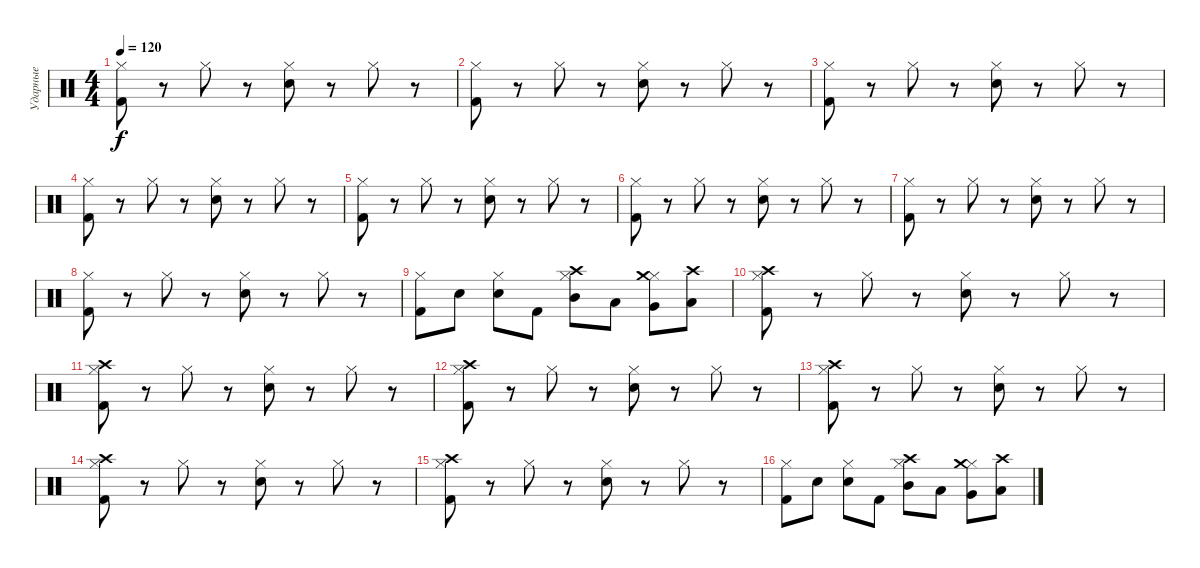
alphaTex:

\track ("Ударные" "Ударные") {instrument percussion}
\staff {score}
\articulation defaults
\ts (4 4)
\tempo 120
\clef neutral
\ks c
("Hi-Hat (closed)" "Kick (hit) 2").8{dy f} r.8 "Hi-Hat (closed)".8 r.8 ("Snare (hit) 2" "Hi-Hat (closed)").8 r.8 "Hi-Hat (closed)".8 r.8 |
("Hi-Hat (closed)" "Kick (hit) 2").8 r.8 "Hi-Hat (closed)".8 r.8 ("Snare (hit) 2" "Hi-Hat (closed)").8 r.8 "Hi-Hat (closed)".8 r.8 |
("Hi-Hat (closed)" "Kick (hit) 2").8 r.8 "Hi-Hat (closed)".8 r.8 ("Snare (hit) 2" "Hi-Hat (closed)").8 r.8 "Hi-Hat (closed)".8 r.8 |
("Hi-Hat (closed)" "Kick (hit) 2").8 r.8 "Hi-Hat (closed)".8 r.8 ("Snare (hit) 2" "Hi-Hat (closed)").8 r.8 "Hi-Hat (closed)".8 r.8 |
("Hi-Hat (closed)" "Kick (hit) 2").8 r.8 "Hi-Hat (closed)".8 r.8 ("Snare (hit) 2" "Hi-Hat (closed)").8 r.8 "Hi-Hat (closed)".8 r.8 |
("Hi-Hat (closed)" "Kick (hit) 2").8 r.8 "Hi-Hat (closed)".8 r.8 ("Snare (hit) 2" "Hi-Hat (closed)").8 r.8 "Hi-Hat (closed)".8 r.8 |
("Hi-Hat (closed)" "Kick (hit) 2").8 r.8 "Hi-Hat (closed)".8 r.8 ("Snare (hit) 2" "Hi-Hat (closed)").8 r.8 "Hi-Hat (closed)".8 r.8 |
("Hi-Hat (closed)" "Kick (hit) 2").8 r.8 "Hi-Hat (closed)".8 r.8 ("Snare (hit) 2" "Hi-Hat (closed)").8 r.8 "Hi-Hat (closed)".8 r.8 |
("Hi-Hat (closed)" "Kick (hit) 2").8 "Snare (hit) 2".8 ("Snare (hit) 2" "Hi-Hat (closed)").8 "Kick (hit) 2".8 ("Mid Tom (hit)" "Hi-Hat (closed)" "Crash high (hit)").8 "Low Tom (hit)".8 ("Very Low Tom (hit)" "Hi-Hat (closed)" "Crash medium (hit)").8 ("Low Floor Tom (hit)" "Crash high (hit)").8 |
("Crash high (hit)" "Hi-Hat (closed)" "Kick (hit) 2").8 r.8 "Hi-Hat (closed)".8 r.8 ("Snare (hit) 2" "Hi-Hat (closed)").8 r.8 "Hi-Hat (closed)".8 r.8 |
("Crash high (hit)" "Hi-Hat (closed)" "Kick (hit) 2").8 r.8 "Hi-Hat (closed)".8 r.8 ("Snare (hit) 2" "Hi-Hat (closed)").8 r.8 "Hi-Hat (closed)".8 r.8 |
("Crash high (hit)" "Hi-Hat (closed)" "Kick (hit) 2").8 r.8 "Hi-Hat (closed)".8 r.8 ("Snare (hit) 2" "Hi-Hat (closed)").8 r.8 "Hi-Hat (closed)".8 r.8 |
("Crash high (hit)" "Hi-Hat (closed)" "Kick (hit) 2").8 r.8 "Hi-Hat (closed)".8 r.8 ("Snare (hit) 2" "Hi-Hat (closed)").8 r.8 "Hi-Hat (closed)".8 r.8 |
("Crash high (hit)" "Hi-Hat (closed)" "Kick (hit) 2").8 r.8 "Hi-Hat (closed)".8 r.8 ("Snare (hit) 2" "Hi-Hat (closed)").8 r.8 "Hi-Hat (closed)".8 r.8 |
("Crash high (hit)" "Hi-Hat (closed)" "Kick (hit) 2").8 r.8 "Hi-Hat (closed)".8 r.8 ("Snare (hit) 2" "Hi-Hat (closed)").8 r.8 "Hi-Hat (closed)".8 r.8 |
("Hi-Hat (closed)" "Kick (hit) 2").8 "Snare (hit) 2".8 ("Snare (hit) 2" "Hi-Hat (closed)").8 "Kick (hit) 2".8 ("Mid Tom (hit)" "Hi-Hat (closed)" "Crash high (hit)").8 "Low Tom (hit)".8 ("Very Low Tom (hit)" "Hi-Hat (closed)" "Crash medium (hit)").8 ("Low Floor Tom (hit)" "Crash high (hit)").8
